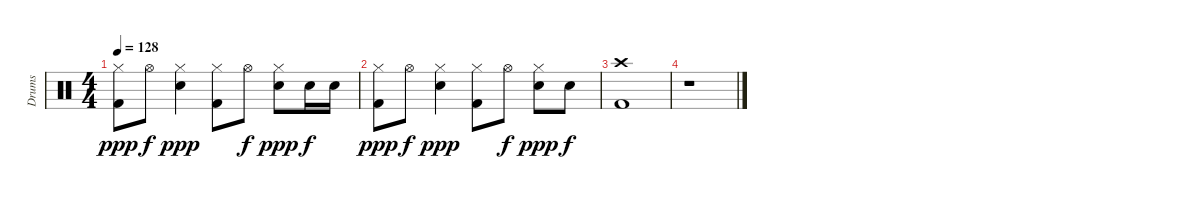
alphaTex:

\track ("Drums" "Drums") {instrument percussion}
\staff {score}
\articulation defaults
\ts (4 4)
\tempo 128
\clef neutral
\ks c
("Hi-Hat (closed)" "Kick (hit) 2").8{dy ppp} "Hi-Hat (open)".8{dy f} ("Hi-Hat (closed)" "Snare (hit) 2").4{dy ppp} ("Hi-Hat (closed)" "Kick (hit) 2").8 "Hi-Hat (open)".8{dy f} ("Hi-Hat (closed)" "Snare (hit) 2").8{dy ppp} "Snare (hit) 2".16{dy f} "Snare (hit) 2".16 |
("Hi-Hat (closed)" "Kick (hit) 2").8{dy ppp} "Hi-Hat (open)".8{dy f} ("Hi-Hat (closed)" "Snare (hit) 2").4{dy ppp} ("Hi-Hat (closed)" "Kick (hit) 2").8 "Hi-Hat (open)".8{dy f} ("Hi-Hat (closed)" "Snare (hit) 2").8{dy ppp} "Snare (hit) 2".8{dy f} |
("Crash high (hit)" "Kick (hit) 2").1 |
r.1
